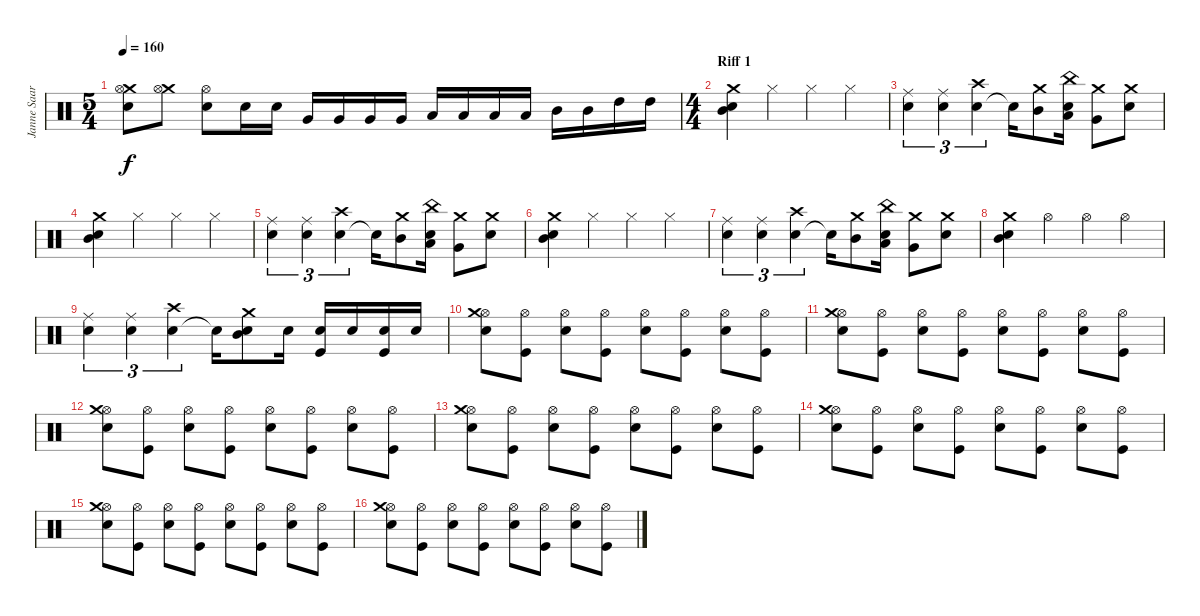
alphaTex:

\track ("Janne Saarenpaa" "Janne Saar") {instrument percussion}
\staff {score}
\articulation defaults
\ts (5 4)
\tempo 160
\clef neutral
\ks c
("Snare (hit) 2" "Crash medium (hit)" "Hi-Hat (open)").8{dy f} ("Crash medium (hit)" "Hi-Hat (open)").8 ("Snare (hit) 2" "Hi-Hat (open)").8 "Snare (hit) 2".16 "Snare (hit) 2".16 "Very Low Tom (hit)".16 "Very Low Tom (hit)".16 "Very Low Tom (hit)".16 "Very Low Tom (hit)".16 "Low Tom (hit)".16 "Low Tom (hit)".16 "Low Tom (hit)".16 "Low Tom (hit)".16 "Mid Tom (hit)".16 "Mid Tom (hit)".16 "High Tom (hit)".16 "High Tom (hit)".16 |
\ts (4 4)
\section ("" "Riff 1")
("Mid Tom (hit)" "Snare (hit) 2" "Crash medium (hit)").4 "Hi-Hat (closed)".4 "Hi-Hat (closed)".4 "Hi-Hat (closed)".4 |
("Snare (hit) 2" "Ride (middle)").4{tu (3 2)} ("Snare (hit) 2" "Ride (middle)").4{tu (3 2)} ("Snare (hit) 2" "Crash high (hit)").4{tu (3 2)} "Snare (hit)"{t}.16 ("Mid Tom (hit)" "Crash medium (hit)").8 ("Low Tom (hit)" "Snare (hit) 2" "China (hit)").16 ("Very Low Tom (hit)" "Crash medium (hit)").8 ("Snare (hit) 2" "Crash medium (hit)").8 |
("Mid Tom (hit)" "Snare (hit) 2" "Crash medium (hit)").4 "Hi-Hat (closed)".4 "Hi-Hat (closed)".4 "Hi-Hat (closed)".4 |
("Snare (hit) 2" "Ride (middle)").4{tu (3 2)} ("Snare (hit) 2" "Ride (middle)").4{tu (3 2)} ("Snare (hit) 2" "Crash high (hit)").4{tu (3 2)} "Snare (hit)"{t}.16 ("Mid Tom (hit)" "Crash medium (hit)").8 ("Low Tom (hit)" "Snare (hit) 2" "China (hit)").16 ("Very Low Tom (hit)" "Crash medium (hit)").8 ("Snare (hit) 2" "Crash medium (hit)").8 |
("Mid Tom (hit)" "Snare (hit) 2" "Crash medium (hit)").4 "Hi-Hat (closed)".4 "Hi-Hat (closed)".4 "Hi-Hat (closed)".4 |
("Snare (hit) 2" "Ride (middle)").4{tu (3 2)} ("Snare (hit) 2" "Ride (middle)").4{tu (3 2)} ("Snare (hit) 2" "Crash high (hit)").4{tu (3 2)} "Snare (hit)"{t}.16 ("Mid Tom (hit)" "Crash medium (hit)").8 ("Low Tom (hit)" "Snare (hit) 2" "China (hit)").16 ("Very Low Tom (hit)" "Crash medium (hit)").8 ("Snare (hit) 2" "Crash medium (hit)").8 |
("Mid Tom (hit)" "Snare (hit) 2" "Crash medium (hit)").4 "Hi-Hat (open)".4 "Hi-Hat (open)".4 "Hi-Hat (open)".4 |
("Snare (hit) 2" "Ride (middle)").4{tu (3 2)} ("Snare (hit) 2" "Ride (middle)").4{tu (3 2)} ("Snare (hit) 2" "Crash high (hit)").4{tu (3 2)} "Snare (hit)"{t}.16 ("Mid Tom (hit)" "Snare (hit) 2" "Crash medium (hit)").8 "Snare (hit) 2".16 ("Kick (hit)" "Snare (hit) 2").16 "Snare (hit) 2".16 ("Kick (hit)" "Snare (hit) 2").16 "Snare (hit) 2".16 |
("Hi-Hat (open)" "Snare (hit) 2" "Crash medium (hit)").8 ("Hi-Hat (open)" "Kick (hit)").8 ("Hi-Hat (open)" "Snare (hit) 2").8 ("Hi-Hat (open)" "Kick (hit)").8 ("Hi-Hat (open)" "Snare (hit) 2").8 ("Hi-Hat (open)" "Kick (hit)").8 ("Hi-Hat (open)" "Snare (hit) 2").8 ("Hi-Hat (open)" "Kick (hit)").8 |
("Hi-Hat (open)" "Snare (hit) 2" "Crash medium (hit)").8 ("Hi-Hat (open)" "Kick (hit)").8 ("Hi-Hat (open)" "Snare (hit) 2").8 ("Hi-Hat (open)" "Kick (hit)").8 ("Hi-Hat (open)" "Snare (hit) 2").8 ("Hi-Hat (open)" "Kick (hit)").8 ("Hi-Hat (open)" "Snare (hit) 2").8 ("Hi-Hat (open)" "Kick (hit)").8 |
("Hi-Hat (open)" "Snare (hit) 2" "Crash medium (hit)").8 ("Hi-Hat (open)" "Kick (hit)").8 ("Hi-Hat (open)" "Snare (hit) 2").8 ("Hi-Hat (open)" "Kick (hit)").8 ("Hi-Hat (open)" "Snare (hit) 2").8 ("Hi-Hat (open)" "Kick (hit)").8 ("Hi-Hat (open)" "Snare (hit) 2").8 ("Hi-Hat (open)" "Kick (hit)").8 |
("Hi-Hat (open)" "Snare (hit) 2" "Crash medium (hit)").8 ("Hi-Hat (open)" "Kick (hit)").8 ("Hi-Hat (open)" "Snare (hit) 2").8 ("Hi-Hat (open)" "Kick (hit)").8 ("Hi-Hat (open)" "Snare (hit) 2").8 ("Hi-Hat (open)" "Kick (hit)").8 ("Hi-Hat (open)" "Snare (hit) 2").8 ("Hi-Hat (open)" "Kick (hit)").8 |
("Hi-Hat (open)" "Snare (hit) 2" "Crash medium (hit)").8 ("Hi-Hat (open)" "Kick (hit)").8 ("Hi-Hat (open)" "Snare (hit) 2").8 ("Hi-Hat (open)" "Kick (hit)").8 ("Hi-Hat (open)" "Snare (hit) 2").8 ("Hi-Hat (open)" "Kick (hit)").8 ("Hi-Hat (open)" "Snare (hit) 2").8 ("Hi-Hat (open)" "Kick (hit)").8 |
("Hi-Hat (open)" "Snare (hit) 2" "Crash medium (hit)").8 ("Hi-Hat (open)" "Kick (hit)").8 ("Hi-Hat (open)" "Snare (hit) 2").8 ("Hi-Hat (open)" "Kick (hit)").8 ("Hi-Hat (open)" "Snare (hit) 2").8 ("Hi-Hat (open)" "Kick (hit)").8 ("Hi-Hat (open)" "Snare (hit) 2").8 ("Hi-Hat (open)" "Kick (hit)").8 |
("Hi-Hat (open)" "Snare (hit) 2" "Crash medium (hit)").8 ("Hi-Hat (open)" "Kick (hit)").8 ("Hi-Hat (open)" "Snare (hit) 2").8 ("Hi-Hat (open)" "Kick (hit)").8 ("Hi-Hat (open)" "Snare (hit) 2").8 ("Hi-Hat (open)" "Kick (hit)").8 ("Hi-Hat (open)" "Snare (hit) 2").8 ("Hi-Hat (open)" "Kick (hit)").8
